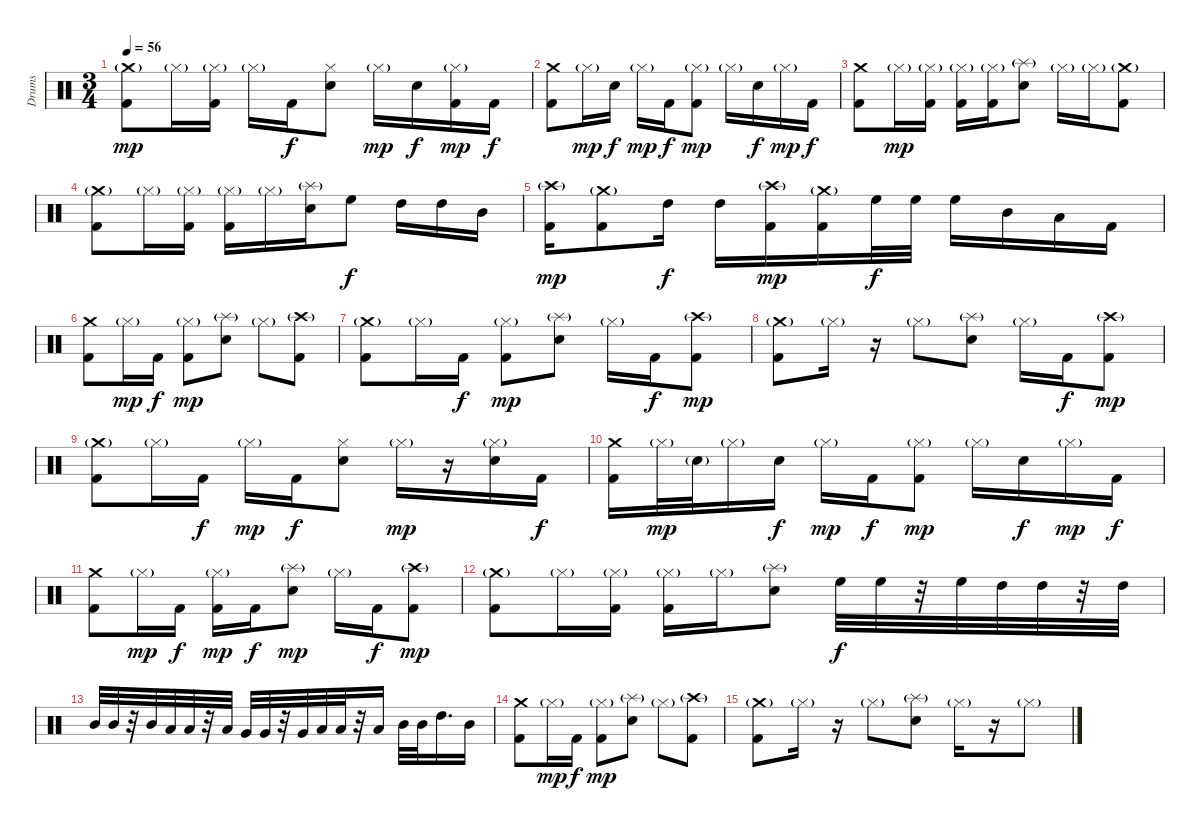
\track ("Drums" "Drums") {instrument percussion}
\staff {score}
\articulation defaults
\ts (3 4)
\tempo 56
\clef neutral
\ks c
("Crash medium (hit)"{g} "Kick (hit) 2").8{dy mp} "Hi-Hat (closed)"{g}.16 ("Hi-Hat (closed)"{g} "Kick (hit) 2").16 "Hi-Hat (closed)"{g}.16 "Kick (hit) 2".16{dy f} ("Hi-Hat (closed)" "Electric Snare (hit)").8 "Hi-Hat (closed)"{g}.16{dy mp} "Electric Snare (hit)".16{dy f} ("Hi-Hat (closed)"{g} "Kick (hit) 2").16{dy mp} "Kick (hit) 2".16{dy f} |
("Crash medium (hit)" "Kick (hit) 2").8 "Hi-Hat (closed)"{g}.16{dy mp} "Electric Snare (hit)".16{dy f} "Hi-Hat (closed)"{g}.16{dy mp} "Kick (hit) 2".16{dy f} ("Hi-Hat (closed)"{g} "Kick (hit) 2").8{dy mp} "Hi-Hat (closed)"{g}.16 "Electric Snare (hit)".16{dy f} "Hi-Hat (closed)"{g}.16{dy mp} "Kick (hit) 2".16{dy f} |
("Crash medium (hit)" "Kick (hit) 2").8 "Hi-Hat (closed)"{g}.16{dy mp} ("Hi-Hat (closed)"{g} "Kick (hit) 2").16 ("Hi-Hat (closed)"{g} "Kick (hit) 2").16 ("Hi-Hat (closed)"{g} "Kick (hit) 2").16 ("Splash (hit)"{g} "Electric Snare (hit)").8 "Hi-Hat (closed)"{g}.16 "Hi-Hat (closed)"{g}.16 ("Crash medium (hit)"{g} "Kick (hit) 2").8 |
("Crash medium (hit)"{g} "Kick (hit) 2").8 "Hi-Hat (closed)"{g}.16 ("Hi-Hat (closed)"{g} "Kick (hit) 2").16 ("Hi-Hat (closed)"{g} "Kick (hit) 2").16 "Hi-Hat (closed)"{g}.16 ("Splash (hit)"{g} "Electric Snare (hit)").16 "High Floor Tom (hit)".8{dy f} "High Tom (hit)".16 "High Tom (hit)".16 "Mid Tom (hit)".16 |
("Crash high (hit)"{g} "Kick (hit) 2").16{dy mp} ("Crash medium (hit)"{g} "Kick (hit) 2").8 "High Tom (hit)".16{dy f} "High Tom (hit)".16 ("Crash high (hit)"{g} "Kick (hit) 2").16{dy mp} ("Crash medium (hit)"{g} "Kick (hit) 2").16 "High Floor Tom (hit)".32{dy f} "High Floor Tom (hit)".32 "High Floor Tom (hit)".16 "Mid Tom (hit)".16 "Low Tom (hit)".16 "Kick (hit) 2".16 |
("Crash medium (hit)" "Kick (hit) 2").8 "Hi-Hat (closed)"{g}.16{dy mp} "Kick (hit) 2".16{dy f} ("Hi-Hat (closed)"{g} "Kick (hit) 2").8{dy mp} ("Splash (hit)"{g} "Electric Snare (hit)").8 "Hi-Hat (closed)"{g}.8 ("Crash high (hit)"{g} "Kick (hit) 2").8 |
("Crash medium (hit)"{g} "Kick (hit) 2").8 "Hi-Hat (closed)"{g}.16 "Kick (hit) 2".16{dy f} ("Hi-Hat (closed)"{g} "Kick (hit) 2").8{dy mp} ("Splash (hit)"{g} "Electric Snare (hit)").8 "Hi-Hat (closed)"{g}.16 "Kick (hit) 2".16{dy f} ("Crash high (hit)"{g} "Kick (hit) 2").8{dy mp} |
("Crash medium (hit)"{g} "Kick (hit) 2").8 "Hi-Hat (closed)"{g}.16 r.16 "Hi-Hat (closed)"{g}.8 ("Splash (hit)"{g} "Electric Snare (hit)").8 "Hi-Hat (closed)"{g}.16 "Kick (hit) 2".16{dy f volume 7} ("Crash high (hit)"{g} "Kick (hit) 2").8{dy mp} |
("Crash medium (hit)"{g} "Kick (hit) 2").8 "Hi-Hat (closed)"{g}.16 "Kick (hit) 2".16{dy f} "Hi-Hat (closed)"{g}.16{dy mp} "Kick (hit) 2".16{dy f} ("Hi-Hat (closed)" "Electric Snare (hit)").8 "Hi-Hat (closed)"{g}.16{dy mp} r.16 ("Hi-Hat (closed)"{g} "Electric Snare (hit)").16 "Kick (hit) 2".16{dy f} |
("Crash medium (hit)" "Kick (hit) 2").16 "Hi-Hat (closed)"{g}.32{dy mp} "Electric Snare (hit)"{g}.32 "Hi-Hat (closed)"{g}.16 "Electric Snare (hit)".16{dy f} "Hi-Hat (closed)"{g}.16{dy mp} "Kick (hit) 2".16{dy f} ("Hi-Hat (closed)"{g} "Kick (hit) 2").8{dy mp} "Hi-Hat (closed)"{g}.16 "Electric Snare (hit)".16{dy f} "Hi-Hat (closed)"{g}.16{dy mp} "Kick (hit) 2".16{dy f} |
("Crash medium (hit)" "Kick (hit) 2").8 "Hi-Hat (closed)"{g}.16{dy mp} "Kick (hit) 2".16{dy f} ("Hi-Hat (closed)"{g} "Kick (hit) 2").16{dy mp} "Kick (hit) 2".16{dy f} ("Splash (hit)"{g} "Electric Snare (hit)").8{dy mp volume 6} "Hi-Hat (closed)"{g}.16 "Kick (hit) 2".16{dy f} ("Crash high (hit)"{g} "Kick (hit) 2").8{dy mp} |
("Crash medium (hit)"{g} "Kick (hit) 2").8 "Hi-Hat (closed)"{g}.16 ("Hi-Hat (closed)"{g} "Kick (hit) 2").16 ("Hi-Hat (closed)"{g} "Kick (hit) 2").16 "Hi-Hat (closed)"{g}.16 ("Splash (hit)"{g} "Electric Snare (hit)").8 "High Floor Tom (hit)".32{dy f} "High Floor Tom (hit)".32 r.32 "High Floor Tom (hit)".32 "High Tom (hit)".32 "High Tom (hit)".32 r.32 "High Tom (hit)".32 |
"Mid Tom (hit)".32 "Mid Tom (hit)".32 r.32 "Mid Tom (hit)".32 "Low Tom (hit)".32 "Low Tom (hit)".32 r.32 "Low Tom (hit)".32 "Very Low Tom (hit)".32 "Very Low Tom (hit)".32 r.32 "Very Low Tom (hit)".32 "Low Floor Tom (hit)".32 "Low Floor Tom (hit)".32 r.32 "Low Floor Tom (hit)".16 "Mid Tom (hit)".32 "Mid Tom (hit)".32 "High Tom (hit)".16{d} "Mid Tom (hit)".16 |
("Crash medium (hit)" "Kick (hit) 2").8{volume 0} "Hi-Hat (closed)"{g}.16{dy mp} "Kick (hit) 2".16{dy f} ("Hi-Hat (closed)"{g} "Kick (hit) 2").8{dy mp} ("Splash (hit)"{g} "Electric Snare (hit)").8 "Hi-Hat (closed)"{g}.8 ("Crash high (hit)"{g} "Kick (hit) 2").8 |
("Crash medium (hit)"{g} "Kick (hit) 2").8 "Hi-Hat (closed)"{g}.16 r.16 "Hi-Hat (closed)"{g}.8 ("Splash (hit)"{g} "Electric Snare (hit)").8 "Hi-Hat (closed)"{g}.16 r.16 "Hi-Hat (closed)"{g}.8
